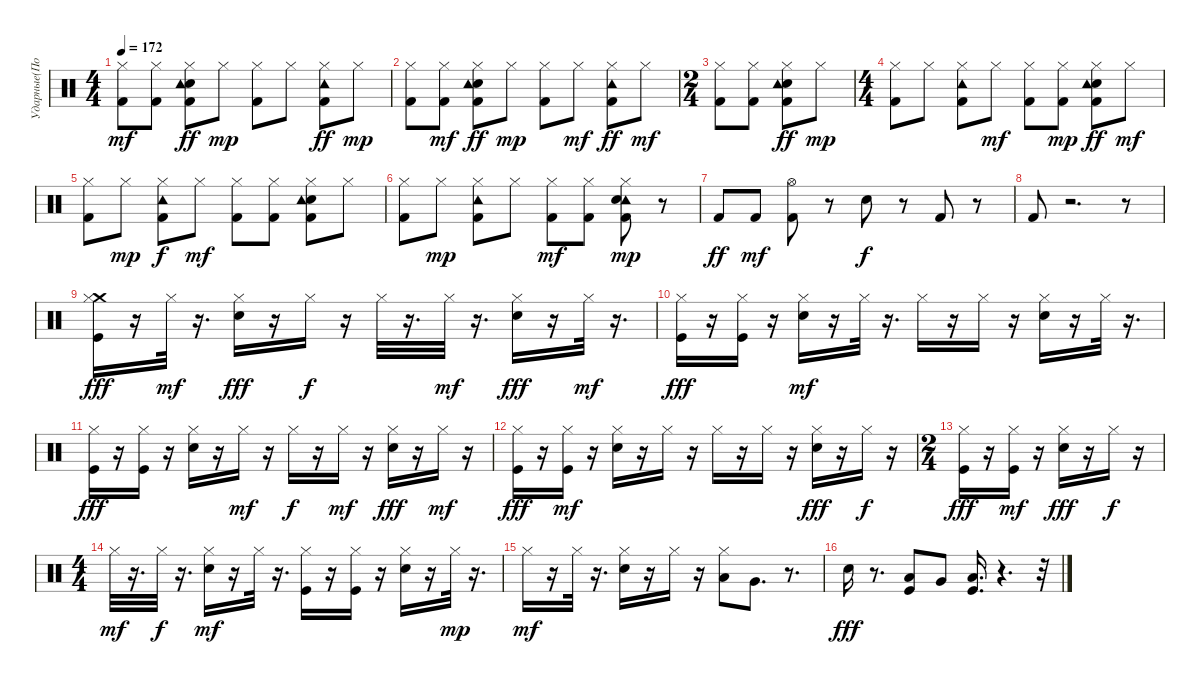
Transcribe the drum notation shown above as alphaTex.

\track ("Ударные(Потапкин)" "Ударные(По") {instrument percussion}
\staff {score}
\articulation defaults
\ts (4 4)
\tempo 172
\clef neutral
\ks c
("Hi-Hat (closed)" "Kick (hit) 2").8{dy mf} ("Hi-Hat (closed)" "Kick (hit) 2").8 ("Snare (hit) 2" "Hi-Hat (closed)" "Kick (hit) 2" "Tambourine (hit)").8{dy ff} "Hi-Hat (closed)".8{dy mp} ("Hi-Hat (closed)" "Kick (hit) 2").8 "Hi-Hat (closed)".8 ("Hi-Hat (closed)" "Tambourine (hit)" "Kick (hit) 2").8{dy ff} "Hi-Hat (closed)".8{dy mp} |
("Hi-Hat (closed)" "Kick (hit) 2").8 ("Hi-Hat (closed)" "Kick (hit) 2").8{dy mf} ("Snare (hit) 2" "Hi-Hat (closed)" "Kick (hit) 2" "Tambourine (hit)").8{dy ff} "Hi-Hat (closed)".8{dy mp} ("Hi-Hat (closed)" "Kick (hit) 2").8 "Hi-Hat (closed)".8{dy mf} ("Hi-Hat (closed)" "Tambourine (hit)" "Kick (hit) 2").8{dy ff} "Hi-Hat (closed)".8{dy mf} |
\ts (2 4)
("Hi-Hat (closed)" "Kick (hit) 2").8 ("Hi-Hat (closed)" "Kick (hit) 2").8 ("Snare (hit) 2" "Hi-Hat (closed)" "Tambourine (hit)" "Kick (hit) 2").8{dy ff} "Hi-Hat (closed)".8{dy mp} |
\ts (4 4)
("Hi-Hat (closed)" "Kick (hit) 2").8 "Hi-Hat (closed)".8 ("Tambourine (hit)" "Kick (hit) 2" "Hi-Hat (closed)").8 "Hi-Hat (closed)".8{dy mf} ("Kick (hit) 2" "Hi-Hat (closed)").8 ("Kick (hit) 2" "Hi-Hat (closed)").8{dy mp} ("Snare (hit) 2" "Hi-Hat (closed)" "Tambourine (hit)" "Kick (hit) 2").8{dy ff} "Hi-Hat (closed)".8{dy mf} |
("Kick (hit) 2" "Hi-Hat (closed)").8 "Hi-Hat (closed)".8{dy mp} ("Tambourine (hit)" "Kick (hit) 2" "Hi-Hat (closed)").8{dy f} "Hi-Hat (closed)".8{dy mf} ("Kick (hit) 2" "Hi-Hat (closed)").8 ("Kick (hit) 2" "Hi-Hat (closed)").8 ("Snare (hit) 2" "Kick (hit) 2" "Tambourine (hit)" "Hi-Hat (closed)").8 "Hi-Hat (closed)".8 |
("Kick (hit) 2" "Hi-Hat (closed)").8 "Hi-Hat (closed)".8{dy mp} ("Tambourine (hit)" "Kick (hit) 2" "Hi-Hat (closed)").8 "Hi-Hat (closed)".8 ("Kick (hit) 2" "Hi-Hat (closed)").8{dy mf} ("Kick (hit) 2" "Hi-Hat (closed)").8 ("Tambourine (hit)" "Kick (hit) 2" "Hi-Hat (closed)" "Snare (hit) 2").8{dy mp} r.8 |
"Kick (hit) 2".8{dy ff} "Kick (hit) 2".8{dy mf} ("Kick (hit) 2" "Hi-Hat (open)").8 r.8 "Snare (hit) 2".8{dy f} r.8 "Kick (hit) 2".8 r.8 |
"Kick (hit) 2".8 r.2{d} r.8 |
("Crash medium (hit)" "Kick (hit)" "Hi-Hat (closed)").16{dy fff} r.16 "Hi-Hat (closed)".32{dy mf} r.16{d} ("Snare (hit) 2" "Hi-Hat (closed)").16{dy fff} r.16 "Hi-Hat (closed)".16{dy f} r.16 "Hi-Hat (closed)".32 r.16{d} "Hi-Hat (closed)".32{dy mf} r.16{d} ("Hi-Hat (closed)" "Snare (hit) 2").16{dy fff} r.16 "Hi-Hat (closed)".32{dy mf} r.16{d} |
("Hi-Hat (closed)" "Kick (hit)").16{dy fff} r.16 ("Hi-Hat (closed)" "Kick (hit)").16 r.16 ("Snare (hit) 2" "Hi-Hat (closed)").16{dy mf} r.16 "Hi-Hat (closed)".32 r.16{d} "Hi-Hat (closed)".16 r.16 "Hi-Hat (closed)".16 r.16 ("Snare (hit) 2" "Hi-Hat (closed)").16 r.16 "Hi-Hat (closed)".32 r.16{d} |
("Kick (hit)" "Hi-Hat (closed)").16{dy fff} r.16 ("Hi-Hat (closed)" "Kick (hit)").16 r.16 ("Hi-Hat (closed)" "Snare (hit) 2").16 r.16 "Hi-Hat (closed)".16{dy mf} r.16 "Hi-Hat (closed)".16{dy f} r.16 "Hi-Hat (closed)".16{dy mf} r.16 ("Hi-Hat (closed)" "Snare (hit) 2").16{dy fff} r.16 "Hi-Hat (closed)".16{dy mf} r.16 |
("Hi-Hat (closed)" "Kick (hit)").16{dy fff} r.16 ("Hi-Hat (closed)" "Kick (hit)").16{dy mf} r.16 ("Snare (hit) 2" "Hi-Hat (closed)").16 r.16 "Hi-Hat (closed)".16 r.16 "Hi-Hat (closed)".16 r.16 "Hi-Hat (closed)".16 r.16 ("Snare (hit) 2" "Hi-Hat (closed)").16{dy fff} r.16 "Hi-Hat (closed)".16{dy f} r.16 |
\ts (2 4)
("Kick (hit)" "Hi-Hat (closed)").16{dy fff} r.16 ("Kick (hit)" "Hi-Hat (closed)").16{dy mf} r.16 ("Hi-Hat (closed)" "Snare (hit) 2").16{dy fff} r.16 "Hi-Hat (closed)".16{dy f} r.16 |
\ts (4 4)
"Hi-Hat (closed)".32{dy mf} r.16{d} "Hi-Hat (closed)".32{dy f} r.16{d} ("Snare (hit) 2" "Hi-Hat (closed)").16{dy mf} r.16 "Hi-Hat (closed)".32 r.16{d} ("Kick (hit)" "Hi-Hat (closed)").16 r.16 ("Kick (hit)" "Hi-Hat (closed)").16 r.16 ("Snare (hit) 2" "Hi-Hat (closed)").16 r.16 "Hi-Hat (closed)".32{dy mp} r.16{d} |
"Hi-Hat (closed)".16{dy mf} r.16 "Hi-Hat (closed)".32 r.16{d} ("Snare (hit) 2" "Hi-Hat (closed)").16 r.16 "Hi-Hat (closed)".16 r.16 ("Low Tom (hit)" "Hi-Hat (closed)").8 "Very Low Tom (hit)".8{d} r.8{d} |
"Snare (hit) 2".16{dy fff} r.8{d} ("Low Tom (hit)" "Kick (hit)").8 "Very Low Tom (hit)".8 ("Low Floor Tom (hit)" "Kick (hit)").16{d} r.4{d} r.32
